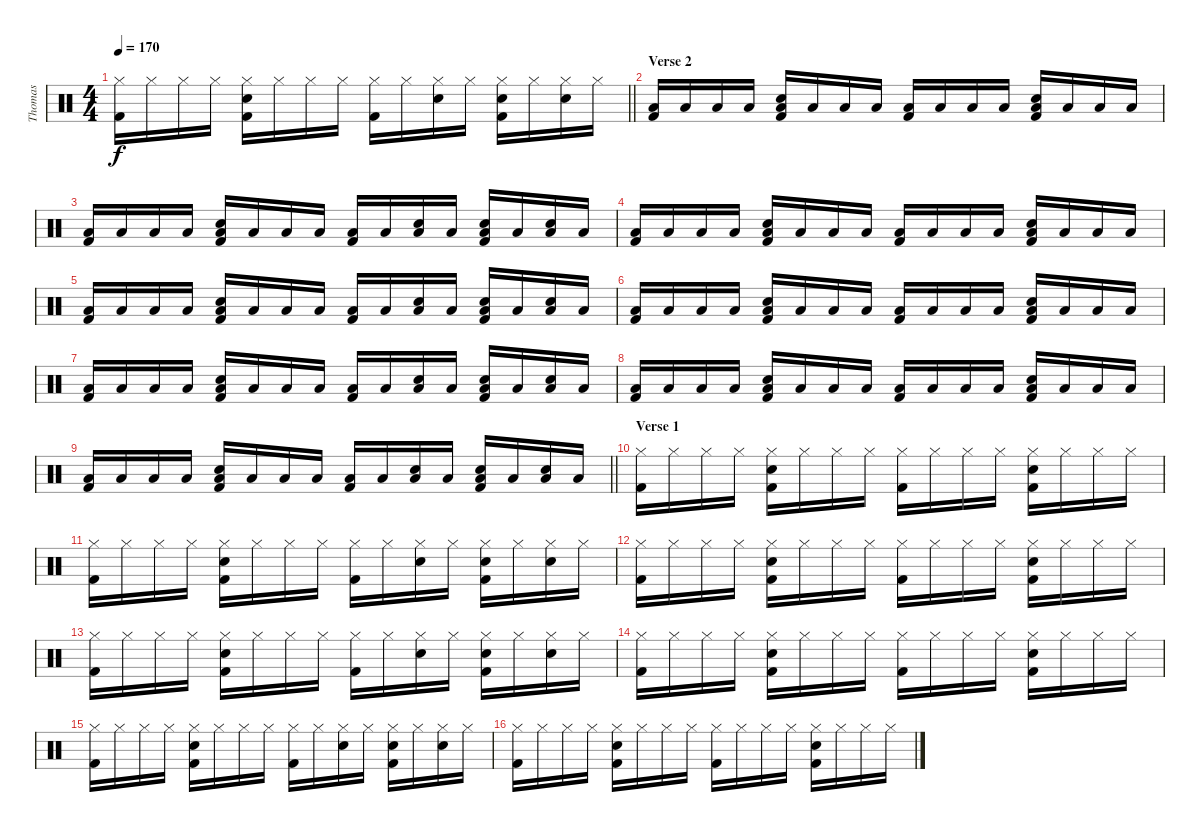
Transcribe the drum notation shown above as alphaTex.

\track ("Thomas" "Thomas") {instrument percussion}
\staff {score}
\articulation defaults
\ts (4 4)
\tempo 170
\clef neutral
\barLineRight lightlight
\ks c
("Hi-Hat (closed)" "Kick (hit) 2").16{dy f} "Hi-Hat (closed)".16 "Hi-Hat (closed)".16 "Hi-Hat (closed)".16 ("Hi-Hat (closed)" "Snare (hit) 2" "Kick (hit) 2").16 "Hi-Hat (closed)".16 "Hi-Hat (closed)".16 "Hi-Hat (closed)".16 ("Hi-Hat (closed)" "Kick (hit) 2").16 "Hi-Hat (closed)".16 ("Hi-Hat (closed)" "Snare (hit) 2").16 "Hi-Hat (closed)".16 ("Hi-Hat (closed)" "Snare (hit) 2" "Kick (hit) 2").16 "Hi-Hat (closed)".16 ("Hi-Hat (closed)" "Snare (hit) 2").16 "Hi-Hat (closed)".16 |
\section ("" "Verse 2")
("Low Floor Tom (hit)" "Kick (hit) 2").16 "Low Floor Tom (hit)".16 "Low Floor Tom (hit)".16 "Low Floor Tom (hit)".16 ("Low Floor Tom (hit)" "Snare (hit) 2" "Kick (hit) 2").16 "Low Floor Tom (hit)".16 "Low Floor Tom (hit)".16 "Low Floor Tom (hit)".16 ("Low Floor Tom (hit)" "Kick (hit) 2").16 "Low Floor Tom (hit)".16 "Low Floor Tom (hit)".16 "Low Floor Tom (hit)".16 ("Low Floor Tom (hit)" "Snare (hit) 2" "Kick (hit) 2").16 "Low Floor Tom (hit)".16 "Low Floor Tom (hit)".16 "Low Floor Tom (hit)".16 |
("Low Floor Tom (hit)" "Kick (hit) 2").16 "Low Floor Tom (hit)".16 "Low Floor Tom (hit)".16 "Low Floor Tom (hit)".16 ("Low Floor Tom (hit)" "Snare (hit) 2" "Kick (hit) 2").16 "Low Floor Tom (hit)".16 "Low Floor Tom (hit)".16 "Low Floor Tom (hit)".16 ("Low Floor Tom (hit)" "Kick (hit) 2").16 "Low Floor Tom (hit)".16 ("Low Floor Tom (hit)" "Snare (hit) 2").16 "Low Floor Tom (hit)".16 ("Low Floor Tom (hit)" "Snare (hit) 2" "Kick (hit) 2").16 "Low Floor Tom (hit)".16 ("Low Floor Tom (hit)" "Snare (hit) 2").16 "Low Floor Tom (hit)".16 |
("Low Floor Tom (hit)" "Kick (hit) 2").16 "Low Floor Tom (hit)".16 "Low Floor Tom (hit)".16 "Low Floor Tom (hit)".16 ("Low Floor Tom (hit)" "Snare (hit) 2" "Kick (hit) 2").16 "Low Floor Tom (hit)".16 "Low Floor Tom (hit)".16 "Low Floor Tom (hit)".16 ("Low Floor Tom (hit)" "Kick (hit) 2").16 "Low Floor Tom (hit)".16 "Low Floor Tom (hit)".16 "Low Floor Tom (hit)".16 ("Low Floor Tom (hit)" "Snare (hit) 2" "Kick (hit) 2").16 "Low Floor Tom (hit)".16 "Low Floor Tom (hit)".16 "Low Floor Tom (hit)".16 |
("Low Floor Tom (hit)" "Kick (hit) 2").16 "Low Floor Tom (hit)".16 "Low Floor Tom (hit)".16 "Low Floor Tom (hit)".16 ("Low Floor Tom (hit)" "Snare (hit) 2" "Kick (hit) 2").16 "Low Floor Tom (hit)".16 "Low Floor Tom (hit)".16 "Low Floor Tom (hit)".16 ("Low Floor Tom (hit)" "Kick (hit) 2").16 "Low Floor Tom (hit)".16 ("Low Floor Tom (hit)" "Snare (hit) 2").16 "Low Floor Tom (hit)".16 ("Low Floor Tom (hit)" "Snare (hit) 2" "Kick (hit) 2").16 "Low Floor Tom (hit)".16 ("Low Floor Tom (hit)" "Snare (hit) 2").16 "Low Floor Tom (hit)".16 |
("Low Floor Tom (hit)" "Kick (hit) 2").16 "Low Floor Tom (hit)".16 "Low Floor Tom (hit)".16 "Low Floor Tom (hit)".16 ("Low Floor Tom (hit)" "Snare (hit) 2" "Kick (hit) 2").16 "Low Floor Tom (hit)".16 "Low Floor Tom (hit)".16 "Low Floor Tom (hit)".16 ("Low Floor Tom (hit)" "Kick (hit) 2").16 "Low Floor Tom (hit)".16 "Low Floor Tom (hit)".16 "Low Floor Tom (hit)".16 ("Low Floor Tom (hit)" "Snare (hit) 2" "Kick (hit) 2").16 "Low Floor Tom (hit)".16 "Low Floor Tom (hit)".16 "Low Floor Tom (hit)".16 |
("Low Floor Tom (hit)" "Kick (hit) 2").16 "Low Floor Tom (hit)".16 "Low Floor Tom (hit)".16 "Low Floor Tom (hit)".16 ("Low Floor Tom (hit)" "Snare (hit) 2" "Kick (hit) 2").16 "Low Floor Tom (hit)".16 "Low Floor Tom (hit)".16 "Low Floor Tom (hit)".16 ("Low Floor Tom (hit)" "Kick (hit) 2").16 "Low Floor Tom (hit)".16 ("Low Floor Tom (hit)" "Snare (hit) 2").16 "Low Floor Tom (hit)".16 ("Low Floor Tom (hit)" "Snare (hit) 2" "Kick (hit) 2").16 "Low Floor Tom (hit)".16 ("Low Floor Tom (hit)" "Snare (hit) 2").16 "Low Floor Tom (hit)".16 |
("Low Floor Tom (hit)" "Kick (hit) 2").16 "Low Floor Tom (hit)".16 "Low Floor Tom (hit)".16 "Low Floor Tom (hit)".16 ("Low Floor Tom (hit)" "Snare (hit) 2" "Kick (hit) 2").16 "Low Floor Tom (hit)".16 "Low Floor Tom (hit)".16 "Low Floor Tom (hit)".16 ("Low Floor Tom (hit)" "Kick (hit) 2").16 "Low Floor Tom (hit)".16 "Low Floor Tom (hit)".16 "Low Floor Tom (hit)".16 ("Low Floor Tom (hit)" "Snare (hit) 2" "Kick (hit) 2").16 "Low Floor Tom (hit)".16 "Low Floor Tom (hit)".16 "Low Floor Tom (hit)".16 |
\barLineRight lightlight
("Low Floor Tom (hit)" "Kick (hit) 2").16 "Low Floor Tom (hit)".16 "Low Floor Tom (hit)".16 "Low Floor Tom (hit)".16 ("Low Floor Tom (hit)" "Snare (hit) 2" "Kick (hit) 2").16 "Low Floor Tom (hit)".16 "Low Floor Tom (hit)".16 "Low Floor Tom (hit)".16 ("Low Floor Tom (hit)" "Kick (hit) 2").16 "Low Floor Tom (hit)".16 ("Low Floor Tom (hit)" "Snare (hit) 2").16 "Low Floor Tom (hit)".16 ("Low Floor Tom (hit)" "Snare (hit) 2" "Kick (hit) 2").16 "Low Floor Tom (hit)".16 ("Low Floor Tom (hit)" "Snare (hit) 2").16 "Low Floor Tom (hit)".16 |
\section ("" "Verse 1")
("Hi-Hat (closed)" "Kick (hit) 2").16 "Hi-Hat (closed)".16 "Hi-Hat (closed)".16 "Hi-Hat (closed)".16 ("Hi-Hat (closed)" "Snare (hit) 2" "Kick (hit) 2").16 "Hi-Hat (closed)".16 "Hi-Hat (closed)".16 "Hi-Hat (closed)".16 ("Hi-Hat (closed)" "Kick (hit) 2").16 "Hi-Hat (closed)".16 "Hi-Hat (closed)".16 "Hi-Hat (closed)".16 ("Hi-Hat (closed)" "Snare (hit) 2" "Kick (hit) 2").16 "Hi-Hat (closed)".16 "Hi-Hat (closed)".16 "Hi-Hat (closed)".16 |
("Hi-Hat (closed)" "Kick (hit) 2").16 "Hi-Hat (closed)".16 "Hi-Hat (closed)".16 "Hi-Hat (closed)".16 ("Hi-Hat (closed)" "Snare (hit) 2" "Kick (hit) 2").16 "Hi-Hat (closed)".16 "Hi-Hat (closed)".16 "Hi-Hat (closed)".16 ("Hi-Hat (closed)" "Kick (hit) 2").16 "Hi-Hat (closed)".16 ("Hi-Hat (closed)" "Snare (hit) 2").16 "Hi-Hat (closed)".16 ("Hi-Hat (closed)" "Snare (hit) 2" "Kick (hit) 2").16 "Hi-Hat (closed)".16 ("Hi-Hat (closed)" "Snare (hit) 2").16 "Hi-Hat (closed)".16 |
("Hi-Hat (closed)" "Kick (hit) 2").16 "Hi-Hat (closed)".16 "Hi-Hat (closed)".16 "Hi-Hat (closed)".16 ("Hi-Hat (closed)" "Snare (hit) 2" "Kick (hit) 2").16 "Hi-Hat (closed)".16 "Hi-Hat (closed)".16 "Hi-Hat (closed)".16 ("Hi-Hat (closed)" "Kick (hit) 2").16 "Hi-Hat (closed)".16 "Hi-Hat (closed)".16 "Hi-Hat (closed)".16 ("Hi-Hat (closed)" "Snare (hit) 2" "Kick (hit) 2").16 "Hi-Hat (closed)".16 "Hi-Hat (closed)".16 "Hi-Hat (closed)".16 |
("Hi-Hat (closed)" "Kick (hit) 2").16 "Hi-Hat (closed)".16 "Hi-Hat (closed)".16 "Hi-Hat (closed)".16 ("Hi-Hat (closed)" "Snare (hit) 2" "Kick (hit) 2").16 "Hi-Hat (closed)".16 "Hi-Hat (closed)".16 "Hi-Hat (closed)".16 ("Hi-Hat (closed)" "Kick (hit) 2").16 "Hi-Hat (closed)".16 ("Hi-Hat (closed)" "Snare (hit) 2").16 "Hi-Hat (closed)".16 ("Hi-Hat (closed)" "Snare (hit) 2" "Kick (hit) 2").16 "Hi-Hat (closed)".16 ("Hi-Hat (closed)" "Snare (hit) 2").16 "Hi-Hat (closed)".16 |
("Hi-Hat (closed)" "Kick (hit) 2").16 "Hi-Hat (closed)".16 "Hi-Hat (closed)".16 "Hi-Hat (closed)".16 ("Hi-Hat (closed)" "Snare (hit) 2" "Kick (hit) 2").16 "Hi-Hat (closed)".16 "Hi-Hat (closed)".16 "Hi-Hat (closed)".16 ("Hi-Hat (closed)" "Kick (hit) 2").16 "Hi-Hat (closed)".16 "Hi-Hat (closed)".16 "Hi-Hat (closed)".16 ("Hi-Hat (closed)" "Snare (hit) 2" "Kick (hit) 2").16 "Hi-Hat (closed)".16 "Hi-Hat (closed)".16 "Hi-Hat (closed)".16 |
("Hi-Hat (closed)" "Kick (hit) 2").16 "Hi-Hat (closed)".16 "Hi-Hat (closed)".16 "Hi-Hat (closed)".16 ("Hi-Hat (closed)" "Snare (hit) 2" "Kick (hit) 2").16 "Hi-Hat (closed)".16 "Hi-Hat (closed)".16 "Hi-Hat (closed)".16 ("Hi-Hat (closed)" "Kick (hit) 2").16 "Hi-Hat (closed)".16 ("Hi-Hat (closed)" "Snare (hit) 2").16 "Hi-Hat (closed)".16 ("Hi-Hat (closed)" "Snare (hit) 2" "Kick (hit) 2").16 "Hi-Hat (closed)".16 ("Hi-Hat (closed)" "Snare (hit) 2").16 "Hi-Hat (closed)".16 |
("Hi-Hat (closed)" "Kick (hit) 2").16 "Hi-Hat (closed)".16 "Hi-Hat (closed)".16 "Hi-Hat (closed)".16 ("Hi-Hat (closed)" "Snare (hit) 2" "Kick (hit) 2").16 "Hi-Hat (closed)".16 "Hi-Hat (closed)".16 "Hi-Hat (closed)".16 ("Hi-Hat (closed)" "Kick (hit) 2").16 "Hi-Hat (closed)".16 "Hi-Hat (closed)".16 "Hi-Hat (closed)".16 ("Hi-Hat (closed)" "Snare (hit) 2" "Kick (hit) 2").16 "Hi-Hat (closed)".16 "Hi-Hat (closed)".16 "Hi-Hat (closed)".16
